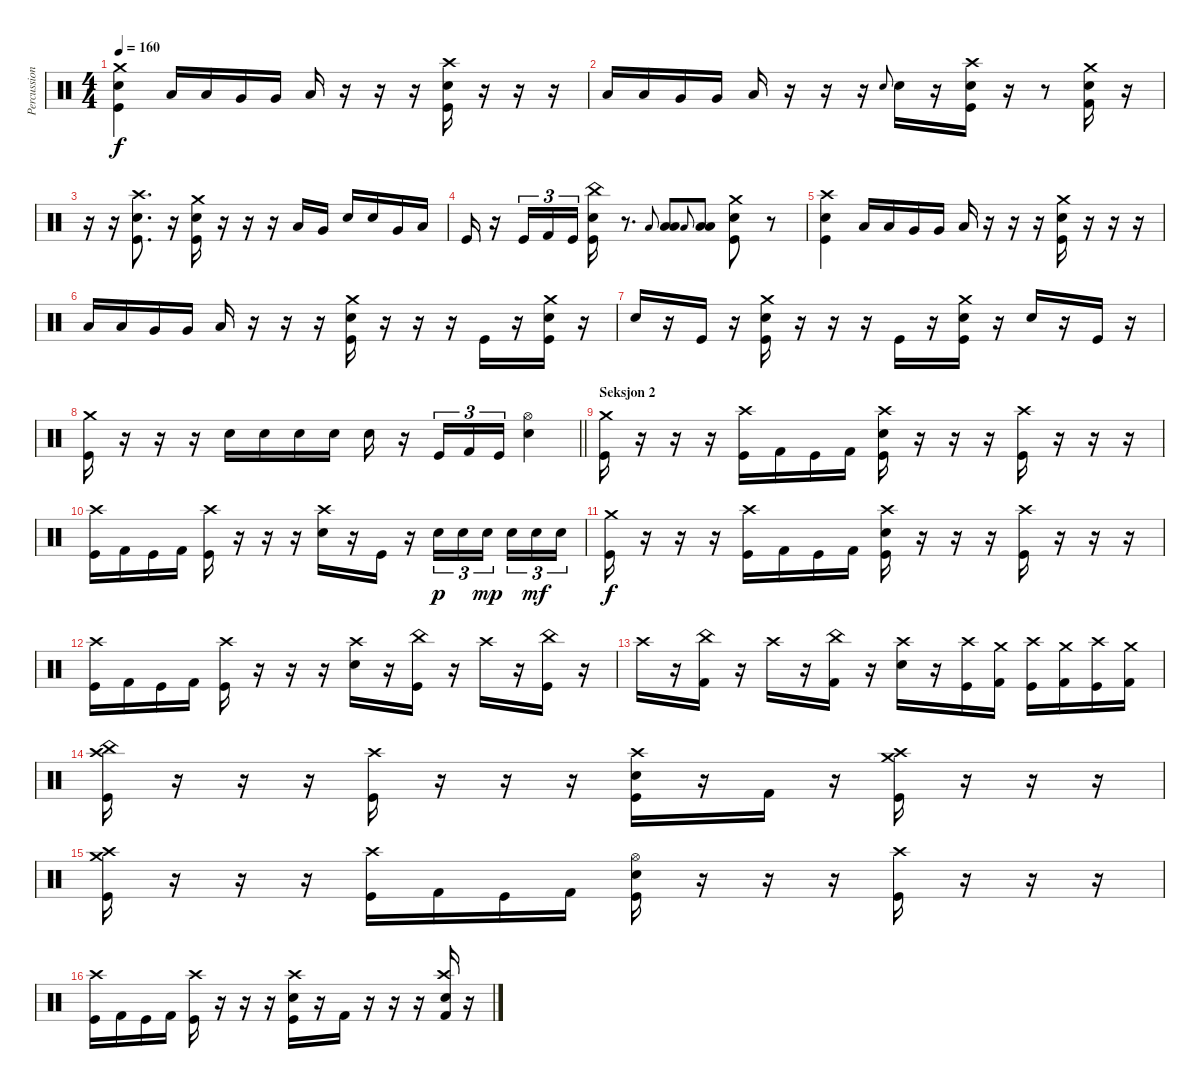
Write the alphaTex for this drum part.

\track ("Percussion" "Percussion") {instrument percussion}
\staff {score}
\articulation defaults
\ts (4 4)
\tempo 160
\clef neutral
\ks c
("Crash medium (hit)" "Snare (hit) 2" "Kick (hit)").4{dy f} "Low Tom (hit)".16 "Low Tom (hit)".16 "Very Low Tom (hit)".16 "Very Low Tom (hit)".16 "Low Floor Tom (hit)".16 r.16 r.16 r.16 ("Crash high (hit)" "Snare (hit) 2" "Kick (hit)").16 r.16 r.16 r.16 |
"Low Tom (hit)".16 "Low Tom (hit)".16 "Very Low Tom (hit)".16 "Very Low Tom (hit)".16 "Low Floor Tom (hit)".16 r.16 r.16 r.16 "Snare (hit) 2".8{gr onbeat} "Snare (hit) 2".16 r.16 ("Crash high (hit)" "Snare (hit) 2" "Kick (hit)").16 r.16 r.8 ("Crash medium (hit)" "Snare (hit) 2" "Kick (hit) 2").16 r.16 |
r.16 r.16 ("Crash high (hit)" "Snare (hit) 2" "Kick (hit)").8{d} r.16 ("Crash medium (hit)" "Snare (hit) 2" "Kick (hit)").16 r.16 r.16 r.16 "Low Floor Tom (hit)".16 "Very Low Tom (hit)".16 "Snare (hit) 2".16 "Snare (hit) 2".16 "Very Low Tom (hit)".16 "Low Floor Tom (hit)".16 |
"Kick (hit)".16 r.16 "Kick (hit)".16{tu (3 2)} "Kick (hit) 2".16{tu (3 2)} "Kick (hit)".16{tu (3 2)} ("China (hit)" "Snare (hit) 2" "Kick (hit)").16 r.8{d} "Low Floor Tom (hit)".8{gr onbeat} ("Low Tom (hit)" "Low Floor Tom (hit)").8 "Low Floor Tom (hit)".8{gr onbeat} ("Low Tom (hit)" "Low Floor Tom (hit)").8 ("Crash medium (hit)" "Snare (hit) 2" "Kick (hit)").8 r.8 |
("Crash high (hit)" "Snare (hit) 2" "Kick (hit)").4 "Low Tom (hit)".16 "Low Tom (hit)".16 "Very Low Tom (hit)".16 "Very Low Tom (hit)".16 "Low Floor Tom (hit)".16 r.16 r.16 r.16 ("Crash medium (hit)" "Snare (hit) 2" "Kick (hit)").16 r.16 r.16 r.16 |
"Low Tom (hit)".16 "Low Tom (hit)".16 "Very Low Tom (hit)".16 "Very Low Tom (hit)".16 "Low Floor Tom (hit)".16 r.16 r.16 r.16 ("Crash medium (hit)" "Snare (hit) 2" "Kick (hit)").16 r.16 r.16 r.16 "Kick (hit)".16 r.16 ("Crash medium (hit)" "Snare (hit) 2" "Kick (hit)").16 r.16 |
"Snare (hit) 2".16 r.16 "Kick (hit)".16 r.16 ("Crash medium (hit)" "Snare (hit) 2" "Kick (hit)").16 r.16 r.16 r.16 "Kick (hit)".16 r.16 ("Crash medium (hit)" "Snare (hit) 2" "Kick (hit)").16 r.16 "Snare (hit) 2".16 r.16 "Kick (hit)".16 r.16 |
\barLineRight lightlight
("Crash medium (hit)" "Kick (hit)").16 r.16 r.16 r.16 "Snare (hit) 2".16 "Snare (hit) 2".16 "Snare (hit) 2".16 "Snare (hit) 2".16 "Snare (hit) 2".16 r.16 "Kick (hit)".16{tu (3 2)} "Kick (hit) 2".16{tu (3 2)} "Kick (hit)".16{tu (3 2)} ("Hi-Hat (open)" "Snare (hit) 2").4 |
\section ("" "Seksjon 2")
("Crash medium (hit)" "Kick (hit)").16 r.16 r.16 r.16 ("Crash high (hit)" "Kick (hit)").16 "Kick (hit) 2".16 "Kick (hit)".16 "Kick (hit) 2".16 ("Crash high (hit)" "Snare (hit) 2" "Kick (hit)").16 r.16 r.16 r.16 ("Crash high (hit)" "Kick (hit)").16 r.16 r.16 r.16 |
("Crash high (hit)" "Kick (hit)").16 "Kick (hit) 2".16 "Kick (hit)".16 "Kick (hit) 2".16 ("Crash high (hit)" "Kick (hit)").16 r.16 r.16 r.16 ("Crash high (hit)" "Snare (hit) 2").16 r.16 "Kick (hit)".16 r.16 "Snare (hit) 2".16{tu (3 2) dy p} "Snare (hit) 2".16{tu (3 2)} "Snare (hit) 2".16{tu (3 2) dy mp beam splitsecondary} "Snare (hit) 2".16{tu (3 2)} "Snare (hit) 2".16{tu (3 2) dy mf} "Snare (hit) 2".16{tu (3 2)} |
("Crash medium (hit)" "Kick (hit)").16{dy f} r.16 r.16 r.16 ("Crash high (hit)" "Kick (hit)").16 "Kick (hit) 2".16 "Kick (hit)".16 "Kick (hit) 2".16 ("Crash high (hit)" "Snare (hit) 2" "Kick (hit)").16 r.16 r.16 r.16 ("Crash high (hit)" "Kick (hit)").16 r.16 r.16 r.16 |
("Crash high (hit)" "Kick (hit)").16 "Kick (hit) 2".16 "Kick (hit)".16 "Kick (hit) 2".16 ("Crash high (hit)" "Kick (hit)").16 r.16 r.16 r.16 ("Crash high (hit)" "Snare (hit) 2").16 r.16 ("China (hit)" "Kick (hit)").16 r.16 "Crash high (hit)".16 r.16 ("China (hit)" "Kick (hit)").16 r.16 |
"Crash high (hit)".16 r.16 ("China (hit)" "Kick (hit) 2").16 r.16 "Crash high (hit)".16 r.16 ("China (hit)" "Kick (hit) 2").16 r.16 ("Crash high (hit)" "Snare (hit) 2").16 r.16 ("Crash high (hit)" "Kick (hit)").16 ("Crash medium (hit)" "Kick (hit) 2").16 ("Crash high (hit)" "Kick (hit)").16 ("Crash medium (hit)" "Kick (hit) 2").16 ("Crash high (hit)" "Kick (hit)").16 ("Crash medium (hit)" "Kick (hit) 2").16 |
("Crash high (hit)" "China (hit)" "Kick (hit)").16 r.16 r.16 r.16 ("Crash high (hit)" "Kick (hit)").16 r.16 r.16 r.16 ("Crash high (hit)" "Snare (hit) 2" "Kick (hit)").16 r.16 "Kick (hit) 2".16 r.16 ("Crash high (hit)" "Crash medium (hit)" "Kick (hit)").16 r.16 r.16 r.16 |
("Crash medium (hit)" "Crash high (hit)" "Kick (hit)").16 r.16 r.16 r.16 ("Crash high (hit)" "Kick (hit)").16 "Kick (hit) 2".16 "Kick (hit)".16 "Kick (hit) 2".16 ("Hi-Hat (open)" "Snare (hit) 2" "Kick (hit)").16 r.16 r.16 r.16 ("Crash high (hit)" "Kick (hit)").16 r.16 r.16 r.16 |
("Crash high (hit)" "Kick (hit)").16 "Kick (hit) 2".16 "Kick (hit)".16 "Kick (hit) 2".16 ("Crash high (hit)" "Kick (hit)").16 r.16 r.16 r.16 ("Crash high (hit)" "Snare (hit) 2" "Kick (hit)").16 r.16 "Kick (hit) 2".16 r.16 r.16 r.16 ("Crash high (hit)" "Snare (hit) 2" "Kick (hit) 2").16 r.16
